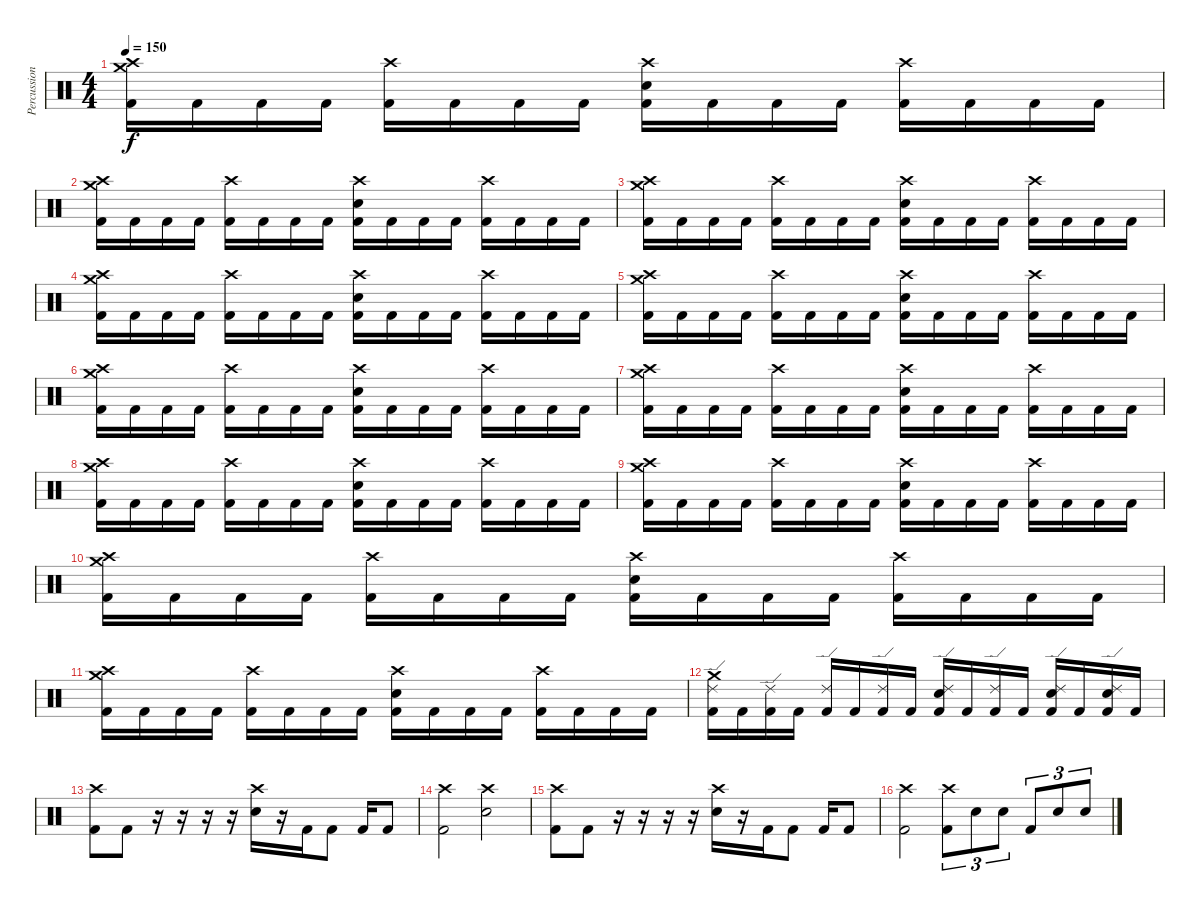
\track ("Percussion" "Percussion") {instrument percussion}
\staff {score}
\articulation defaults
\ts (4 4)
\tempo 150
\clef neutral
\ks c
("Crash high (hit)" "Crash medium (hit)" "Kick (hit) 2").16{dy f} "Kick (hit) 2".16 "Kick (hit) 2".16 "Kick (hit) 2".16 ("Crash high (hit)" "Kick (hit) 2").16 "Kick (hit) 2".16 "Kick (hit) 2".16 "Kick (hit) 2".16 ("Crash high (hit)" "Electric Snare (hit)" "Kick (hit) 2").16 "Kick (hit) 2".16 "Kick (hit) 2".16 "Kick (hit) 2".16 ("Crash high (hit)" "Kick (hit) 2").16 "Kick (hit) 2".16 "Kick (hit) 2".16 "Kick (hit) 2".16 |
("Crash high (hit)" "Crash medium (hit)" "Kick (hit) 2").16 "Kick (hit) 2".16 "Kick (hit) 2".16 "Kick (hit) 2".16 ("Crash high (hit)" "Kick (hit) 2").16 "Kick (hit) 2".16 "Kick (hit) 2".16 "Kick (hit) 2".16 ("Crash high (hit)" "Electric Snare (hit)" "Kick (hit) 2").16 "Kick (hit) 2".16 "Kick (hit) 2".16 "Kick (hit) 2".16 ("Crash high (hit)" "Kick (hit) 2").16 "Kick (hit) 2".16 "Kick (hit) 2".16 "Kick (hit) 2".16 |
("Crash high (hit)" "Crash medium (hit)" "Kick (hit) 2").16 "Kick (hit) 2".16 "Kick (hit) 2".16 "Kick (hit) 2".16 ("Crash high (hit)" "Kick (hit) 2").16 "Kick (hit) 2".16 "Kick (hit) 2".16 "Kick (hit) 2".16 ("Crash high (hit)" "Electric Snare (hit)" "Kick (hit) 2").16 "Kick (hit) 2".16 "Kick (hit) 2".16 "Kick (hit) 2".16 ("Crash high (hit)" "Kick (hit) 2").16 "Kick (hit) 2".16 "Kick (hit) 2".16 "Kick (hit) 2".16 |
("Crash high (hit)" "Crash medium (hit)" "Kick (hit) 2").16 "Kick (hit) 2".16 "Kick (hit) 2".16 "Kick (hit) 2".16 ("Crash high (hit)" "Kick (hit) 2").16 "Kick (hit) 2".16 "Kick (hit) 2".16 "Kick (hit) 2".16 ("Crash high (hit)" "Electric Snare (hit)" "Kick (hit) 2").16 "Kick (hit) 2".16 "Kick (hit) 2".16 "Kick (hit) 2".16 ("Crash high (hit)" "Kick (hit) 2").16 "Kick (hit) 2".16 "Kick (hit) 2".16 "Kick (hit) 2".16 |
("Crash high (hit)" "Crash medium (hit)" "Kick (hit) 2").16 "Kick (hit) 2".16 "Kick (hit) 2".16 "Kick (hit) 2".16 ("Crash high (hit)" "Kick (hit) 2").16 "Kick (hit) 2".16 "Kick (hit) 2".16 "Kick (hit) 2".16 ("Crash high (hit)" "Electric Snare (hit)" "Kick (hit) 2").16 "Kick (hit) 2".16 "Kick (hit) 2".16 "Kick (hit) 2".16 ("Crash high (hit)" "Kick (hit) 2").16 "Kick (hit) 2".16 "Kick (hit) 2".16 "Kick (hit) 2".16 |
("Crash high (hit)" "Crash medium (hit)" "Kick (hit) 2").16 "Kick (hit) 2".16 "Kick (hit) 2".16 "Kick (hit) 2".16 ("Crash high (hit)" "Kick (hit) 2").16 "Kick (hit) 2".16 "Kick (hit) 2".16 "Kick (hit) 2".16 ("Crash high (hit)" "Electric Snare (hit)" "Kick (hit) 2").16 "Kick (hit) 2".16 "Kick (hit) 2".16 "Kick (hit) 2".16 ("Crash high (hit)" "Kick (hit) 2").16 "Kick (hit) 2".16 "Kick (hit) 2".16 "Kick (hit) 2".16 |
("Crash high (hit)" "Crash medium (hit)" "Kick (hit) 2").16 "Kick (hit) 2".16 "Kick (hit) 2".16 "Kick (hit) 2".16 ("Crash high (hit)" "Kick (hit) 2").16 "Kick (hit) 2".16 "Kick (hit) 2".16 "Kick (hit) 2".16 ("Crash high (hit)" "Electric Snare (hit)" "Kick (hit) 2").16 "Kick (hit) 2".16 "Kick (hit) 2".16 "Kick (hit) 2".16 ("Crash high (hit)" "Kick (hit) 2").16 "Kick (hit) 2".16 "Kick (hit) 2".16 "Kick (hit) 2".16 |
("Crash high (hit)" "Crash medium (hit)" "Kick (hit) 2").16 "Kick (hit) 2".16 "Kick (hit) 2".16 "Kick (hit) 2".16 ("Crash high (hit)" "Kick (hit) 2").16 "Kick (hit) 2".16 "Kick (hit) 2".16 "Kick (hit) 2".16 ("Crash high (hit)" "Electric Snare (hit)" "Kick (hit) 2").16 "Kick (hit) 2".16 "Kick (hit) 2".16 "Kick (hit) 2".16 ("Crash high (hit)" "Kick (hit) 2").16 "Kick (hit) 2".16 "Kick (hit) 2".16 "Kick (hit) 2".16 |
("Crash high (hit)" "Crash medium (hit)" "Kick (hit) 2").16 "Kick (hit) 2".16 "Kick (hit) 2".16 "Kick (hit) 2".16 ("Crash high (hit)" "Kick (hit) 2").16 "Kick (hit) 2".16 "Kick (hit) 2".16 "Kick (hit) 2".16 ("Crash high (hit)" "Electric Snare (hit)" "Kick (hit) 2").16 "Kick (hit) 2".16 "Kick (hit) 2".16 "Kick (hit) 2".16 ("Crash high (hit)" "Kick (hit) 2").16 "Kick (hit) 2".16 "Kick (hit) 2".16 "Kick (hit) 2".16 |
("Crash high (hit)" "Crash medium (hit)" "Kick (hit) 2").16 "Kick (hit) 2".16 "Kick (hit) 2".16 "Kick (hit) 2".16 ("Crash high (hit)" "Kick (hit) 2").16 "Kick (hit) 2".16 "Kick (hit) 2".16 "Kick (hit) 2".16 ("Crash high (hit)" "Electric Snare (hit)" "Kick (hit) 2").16 "Kick (hit) 2".16 "Kick (hit) 2".16 "Kick (hit) 2".16 ("Crash high (hit)" "Kick (hit) 2").16 "Kick (hit) 2".16 "Kick (hit) 2".16 "Kick (hit) 2".16 |
("Crash high (hit)" "Crash medium (hit)" "Kick (hit) 2").16 "Kick (hit) 2".16 "Kick (hit) 2".16 "Kick (hit) 2".16 ("Crash high (hit)" "Kick (hit) 2").16 "Kick (hit) 2".16 "Kick (hit) 2".16 "Kick (hit) 2".16 ("Crash high (hit)" "Electric Snare (hit)" "Kick (hit) 2").16 "Kick (hit) 2".16 "Kick (hit) 2".16 "Kick (hit) 2".16 ("Crash high (hit)" "Kick (hit) 2").16 "Kick (hit) 2".16 "Kick (hit) 2".16 "Kick (hit) 2".16 |
("Ride (edge) 2" "Crash medium (hit)" "Kick (hit) 2").16 "Kick (hit) 2".16 ("Ride (edge) 2" "Kick (hit) 2").16 "Kick (hit) 2".16 ("Ride (edge) 2" "Kick (hit) 2").16 "Kick (hit) 2".16 ("Ride (edge) 2" "Kick (hit) 2").16 "Kick (hit) 2".16 ("Ride (edge) 2" "Electric Snare (hit)" "Kick (hit) 2").16 "Kick (hit) 2".16 ("Ride (edge) 2" "Kick (hit) 2").16 "Kick (hit) 2".16 ("Ride (edge) 2" "Electric Snare (hit)" "Kick (hit) 2").16 "Kick (hit) 2".16 ("Ride (edge) 2" "Electric Snare (hit)" "Kick (hit) 2").16 "Kick (hit) 2".16 |
("Crash high (hit)" "Kick (hit) 2").8 "Kick (hit) 2".8 r.16 r.16 r.16 r.16 ("Crash high (hit)" "Electric Snare (hit)").16 r.16 "Kick (hit) 2".16 "Kick (hit) 2".8 "Kick (hit) 2".16 "Kick (hit) 2".8 |
("Crash high (hit)" "Kick (hit) 2").2 ("Crash high (hit)" "Electric Snare (hit)").2 |
("Crash high (hit)" "Kick (hit) 2").8 "Kick (hit) 2".8 r.16 r.16 r.16 r.16 ("Crash high (hit)" "Electric Snare (hit)").16 r.16 "Kick (hit) 2".16 "Kick (hit) 2".8 "Kick (hit) 2".16 "Kick (hit) 2".8 |
("Crash high (hit)" "Kick (hit) 2").2 ("Crash high (hit)" "Kick (hit) 2").8{tu (3 2)} "Electric Snare (hit)".8{tu (3 2)} "Electric Snare (hit)".8{tu (3 2)} "Kick (hit) 2".8{tu (3 2)} "Electric Snare (hit)".8{tu (3 2)} "Electric Snare (hit)".8{tu (3 2)}
